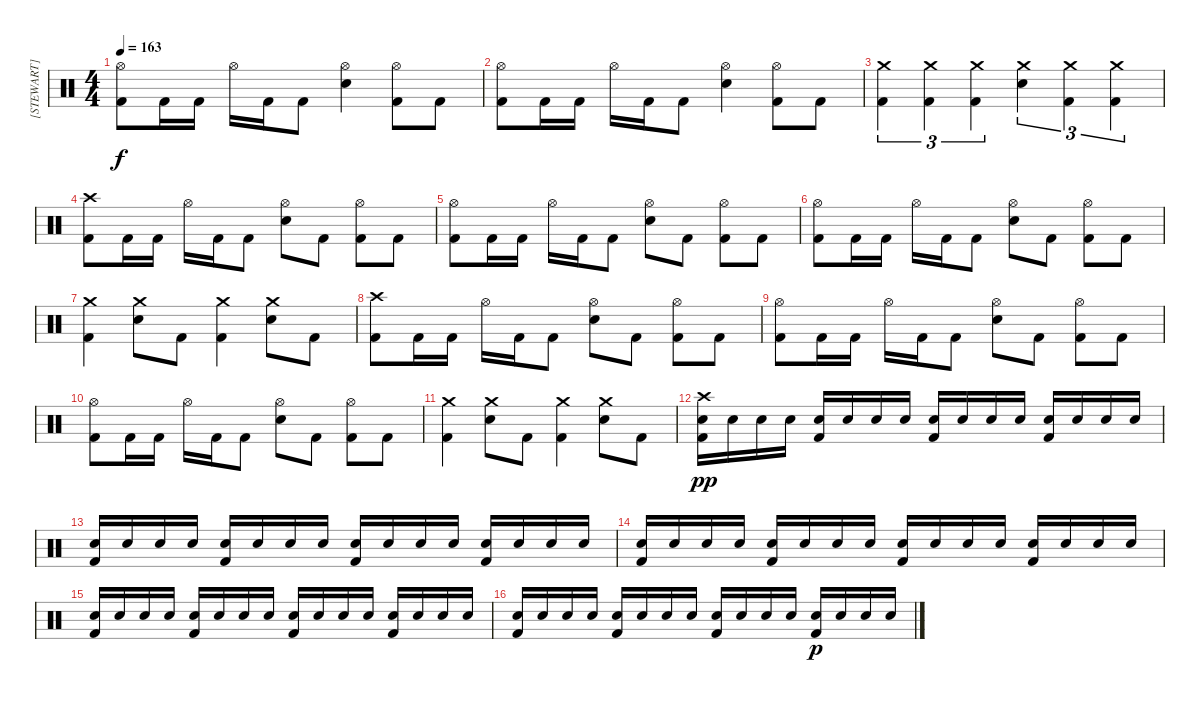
\track ("[STEWART]" "[STEWART]") {instrument percussion}
\staff {score}
\articulation defaults
\ts (4 4)
\tempo 163
\clef neutral
\ks c
("Hi-Hat (open)" "Kick (hit) 2").8{dy f} "Kick (hit) 2".16 "Kick (hit) 2".16 "Hi-Hat (open)".16 "Kick (hit) 2".16 "Kick (hit) 2".8 ("Hi-Hat (open)" "Electric Snare (hit)").4 ("Hi-Hat (open)" "Kick (hit) 2").8 "Kick (hit) 2".8 |
("Hi-Hat (open)" "Kick (hit) 2").8 "Kick (hit) 2".16 "Kick (hit) 2".16 "Hi-Hat (open)".16 "Kick (hit) 2".16 "Kick (hit) 2".8 ("Hi-Hat (open)" "Electric Snare (hit)").4 ("Hi-Hat (open)" "Kick (hit) 2").8 "Kick (hit) 2".8 |
("Crash medium (hit)" "Kick (hit) 2").4{tu (3 2)} ("Crash medium (hit)" "Kick (hit) 2").4{tu (3 2)} ("Crash medium (hit)" "Kick (hit) 2").4{tu (3 2)} ("Crash medium (hit)" "Electric Snare (hit)").4{tu (3 2)} ("Crash medium (hit)" "Kick (hit) 2").4{tu (3 2)} ("Crash medium (hit)" "Kick (hit) 2").4{tu (3 2)} |
("Crash high (hit)" "Kick (hit) 2").8 "Kick (hit) 2".16 "Kick (hit) 2".16 "Hi-Hat (open)".16 "Kick (hit) 2".16 "Kick (hit) 2".8 ("Hi-Hat (open)" "Electric Snare (hit)").8 "Kick (hit) 2".8 ("Hi-Hat (open)" "Kick (hit) 2").8 "Kick (hit) 2".8 |
("Hi-Hat (open)" "Kick (hit) 2").8 "Kick (hit) 2".16 "Kick (hit) 2".16 "Hi-Hat (open)".16 "Kick (hit) 2".16 "Kick (hit) 2".8 ("Hi-Hat (open)" "Electric Snare (hit)").8 "Kick (hit) 2".8 ("Hi-Hat (open)" "Kick (hit) 2").8 "Kick (hit) 2".8 |
("Hi-Hat (open)" "Kick (hit) 2").8 "Kick (hit) 2".16 "Kick (hit) 2".16 "Hi-Hat (open)".16 "Kick (hit) 2".16 "Kick (hit) 2".8 ("Hi-Hat (open)" "Electric Snare (hit)").8 "Kick (hit) 2".8 ("Hi-Hat (open)" "Kick (hit) 2").8 "Kick (hit) 2".8 |
("Crash medium (hit)" "Kick (hit) 2").4 ("Crash medium (hit)" "Electric Snare (hit)").8 "Kick (hit) 2".8 ("Crash medium (hit)" "Kick (hit) 2").4 ("Crash medium (hit)" "Electric Snare (hit)").8 "Kick (hit) 2".8 |
("Crash high (hit)" "Kick (hit) 2").8 "Kick (hit) 2".16 "Kick (hit) 2".16 "Hi-Hat (open)".16 "Kick (hit) 2".16 "Kick (hit) 2".8 ("Hi-Hat (open)" "Electric Snare (hit)").8 "Kick (hit) 2".8 ("Hi-Hat (open)" "Kick (hit) 2").8 "Kick (hit) 2".8 |
("Hi-Hat (open)" "Kick (hit) 2").8 "Kick (hit) 2".16 "Kick (hit) 2".16 "Hi-Hat (open)".16 "Kick (hit) 2".16 "Kick (hit) 2".8 ("Hi-Hat (open)" "Electric Snare (hit)").8 "Kick (hit) 2".8 ("Hi-Hat (open)" "Kick (hit) 2").8 "Kick (hit) 2".8 |
("Hi-Hat (open)" "Kick (hit) 2").8 "Kick (hit) 2".16 "Kick (hit) 2".16 "Hi-Hat (open)".16 "Kick (hit) 2".16 "Kick (hit) 2".8 ("Hi-Hat (open)" "Electric Snare (hit)").8 "Kick (hit) 2".8 ("Hi-Hat (open)" "Kick (hit) 2").8 "Kick (hit) 2".8 |
("Crash medium (hit)" "Kick (hit) 2").4 ("Crash medium (hit)" "Electric Snare (hit)").8 "Kick (hit) 2".8 ("Crash medium (hit)" "Kick (hit) 2").4 ("Crash medium (hit)" "Electric Snare (hit)").8 "Kick (hit) 2".8 |
("Crash high (hit)" "Electric Snare (hit)" "Kick (hit) 2").16{dy pp} "Electric Snare (hit)".16 "Electric Snare (hit)".16 "Electric Snare (hit)".16 ("Electric Snare (hit)" "Kick (hit) 2").16 "Electric Snare (hit)".16 "Electric Snare (hit)".16 "Electric Snare (hit)".16 ("Electric Snare (hit)" "Kick (hit) 2").16 "Electric Snare (hit)".16 "Electric Snare (hit)".16 "Electric Snare (hit)".16 ("Electric Snare (hit)" "Kick (hit) 2").16 "Electric Snare (hit)".16 "Electric Snare (hit)".16 "Electric Snare (hit)".16 |
("Electric Snare (hit)" "Kick (hit) 2").16 "Electric Snare (hit)".16 "Electric Snare (hit)".16 "Electric Snare (hit)".16 ("Electric Snare (hit)" "Kick (hit) 2").16 "Electric Snare (hit)".16 "Electric Snare (hit)".16 "Electric Snare (hit)".16 ("Electric Snare (hit)" "Kick (hit) 2").16 "Electric Snare (hit)".16 "Electric Snare (hit)".16 "Electric Snare (hit)".16 ("Electric Snare (hit)" "Kick (hit) 2").16 "Electric Snare (hit)".16 "Electric Snare (hit)".16 "Electric Snare (hit)".16 |
("Electric Snare (hit)" "Kick (hit) 2").16 "Electric Snare (hit)".16 "Electric Snare (hit)".16 "Electric Snare (hit)".16 ("Electric Snare (hit)" "Kick (hit) 2").16 "Electric Snare (hit)".16 "Electric Snare (hit)".16 "Electric Snare (hit)".16 ("Electric Snare (hit)" "Kick (hit) 2").16 "Electric Snare (hit)".16 "Electric Snare (hit)".16 "Electric Snare (hit)".16 ("Electric Snare (hit)" "Kick (hit) 2").16 "Electric Snare (hit)".16 "Electric Snare (hit)".16 "Electric Snare (hit)".16 |
("Electric Snare (hit)" "Kick (hit) 2").16 "Electric Snare (hit)".16 "Electric Snare (hit)".16 "Electric Snare (hit)".16 ("Electric Snare (hit)" "Kick (hit) 2").16 "Electric Snare (hit)".16 "Electric Snare (hit)".16 "Electric Snare (hit)".16 ("Electric Snare (hit)" "Kick (hit) 2").16 "Electric Snare (hit)".16 "Electric Snare (hit)".16 "Electric Snare (hit)".16 ("Electric Snare (hit)" "Kick (hit) 2").16 "Electric Snare (hit)".16 "Electric Snare (hit)".16 "Electric Snare (hit)".16 |
("Electric Snare (hit)" "Kick (hit) 2").16 "Electric Snare (hit)".16 "Electric Snare (hit)".16 "Electric Snare (hit)".16 ("Electric Snare (hit)" "Kick (hit) 2").16 "Electric Snare (hit)".16 "Electric Snare (hit)".16 "Electric Snare (hit)".16 ("Electric Snare (hit)" "Kick (hit) 2").16 "Electric Snare (hit)".16 "Electric Snare (hit)".16 "Electric Snare (hit)".16 ("Electric Snare (hit)" "Kick (hit) 2").16{dy p} "Electric Snare (hit)".16 "Electric Snare (hit)".16 "Electric Snare (hit)".16
